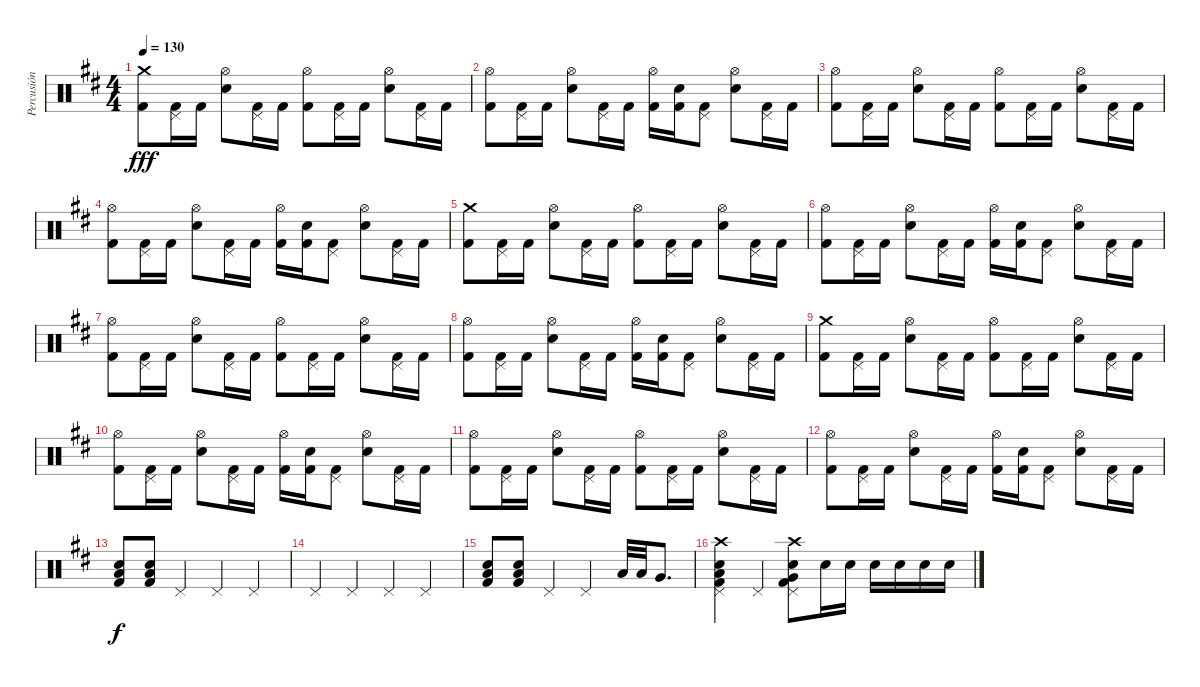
\track ("Percusión" "Percusión") {instrument percussion}
\staff {score}
\articulation defaults
\ts (4 4)
\tempo 130
\clef neutral
\ks d
("Crash medium (hit)" "Kick (hit) 2").8{dy fff} ("Pedal Hi-Hat (hit)" "Kick (hit) 2").16 "Kick (hit) 2".16 ("Hi-Hat (open)" "Electric Snare (hit)").8 ("Pedal Hi-Hat (hit)" "Kick (hit) 2").16 "Kick (hit) 2".16 ("Hi-Hat (open)" "Kick (hit) 2").8 ("Pedal Hi-Hat (hit)" "Kick (hit) 2").16 "Kick (hit) 2".16 ("Hi-Hat (open)" "Electric Snare (hit)").8 ("Pedal Hi-Hat (hit)" "Kick (hit) 2").16 "Kick (hit) 2".16 |
("Hi-Hat (open)" "Kick (hit) 2").8 ("Pedal Hi-Hat (hit)" "Kick (hit) 2").16 "Kick (hit) 2".16 ("Hi-Hat (open)" "Electric Snare (hit)").8 ("Pedal Hi-Hat (hit)" "Kick (hit) 2").16 "Kick (hit) 2".16 ("Hi-Hat (open)" "Kick (hit) 2").16 ("Electric Snare (hit)" "Kick (hit) 2").16 ("Pedal Hi-Hat (hit)" "Kick (hit) 2").8 ("Hi-Hat (open)" "Electric Snare (hit)").8 ("Pedal Hi-Hat (hit)" "Kick (hit) 2").16 "Kick (hit) 2".16 |
("Hi-Hat (open)" "Kick (hit) 2").8 ("Pedal Hi-Hat (hit)" "Kick (hit) 2").16 "Kick (hit) 2".16 ("Hi-Hat (open)" "Electric Snare (hit)").8 ("Pedal Hi-Hat (hit)" "Kick (hit) 2").16 "Kick (hit) 2".16 ("Hi-Hat (open)" "Kick (hit) 2").8 ("Pedal Hi-Hat (hit)" "Kick (hit) 2").16 "Kick (hit) 2".16 ("Hi-Hat (open)" "Electric Snare (hit)").8 ("Pedal Hi-Hat (hit)" "Kick (hit) 2").16 "Kick (hit) 2".16 |
("Hi-Hat (open)" "Kick (hit) 2").8 ("Pedal Hi-Hat (hit)" "Kick (hit) 2").16 "Kick (hit) 2".16 ("Hi-Hat (open)" "Electric Snare (hit)").8 ("Pedal Hi-Hat (hit)" "Kick (hit) 2").16 "Kick (hit) 2".16 ("Hi-Hat (open)" "Kick (hit) 2").16 ("Electric Snare (hit)" "Kick (hit) 2").16 ("Pedal Hi-Hat (hit)" "Kick (hit) 2").8 ("Hi-Hat (open)" "Electric Snare (hit)").8 ("Pedal Hi-Hat (hit)" "Kick (hit) 2").16 "Kick (hit) 2".16 |
("Crash medium (hit)" "Kick (hit) 2").8 ("Pedal Hi-Hat (hit)" "Kick (hit) 2").16 "Kick (hit) 2".16 ("Hi-Hat (open)" "Electric Snare (hit)").8 ("Pedal Hi-Hat (hit)" "Kick (hit) 2").16 "Kick (hit) 2".16 ("Hi-Hat (open)" "Kick (hit) 2").8 ("Pedal Hi-Hat (hit)" "Kick (hit) 2").16 "Kick (hit) 2".16 ("Hi-Hat (open)" "Electric Snare (hit)").8 ("Pedal Hi-Hat (hit)" "Kick (hit) 2").16 "Kick (hit) 2".16 |
("Hi-Hat (open)" "Kick (hit) 2").8 ("Pedal Hi-Hat (hit)" "Kick (hit) 2").16 "Kick (hit) 2".16 ("Hi-Hat (open)" "Electric Snare (hit)").8 ("Pedal Hi-Hat (hit)" "Kick (hit) 2").16 "Kick (hit) 2".16 ("Hi-Hat (open)" "Kick (hit) 2").16 ("Electric Snare (hit)" "Kick (hit) 2").16 ("Pedal Hi-Hat (hit)" "Kick (hit) 2").8 ("Hi-Hat (open)" "Electric Snare (hit)").8 ("Pedal Hi-Hat (hit)" "Kick (hit) 2").16 "Kick (hit) 2".16 |
("Hi-Hat (open)" "Kick (hit) 2").8 ("Pedal Hi-Hat (hit)" "Kick (hit) 2").16 "Kick (hit) 2".16 ("Hi-Hat (open)" "Electric Snare (hit)").8 ("Pedal Hi-Hat (hit)" "Kick (hit) 2").16 "Kick (hit) 2".16 ("Hi-Hat (open)" "Kick (hit) 2").8 ("Pedal Hi-Hat (hit)" "Kick (hit) 2").16 "Kick (hit) 2".16 ("Hi-Hat (open)" "Electric Snare (hit)").8 ("Pedal Hi-Hat (hit)" "Kick (hit) 2").16 "Kick (hit) 2".16 |
("Hi-Hat (open)" "Kick (hit) 2").8 ("Pedal Hi-Hat (hit)" "Kick (hit) 2").16 "Kick (hit) 2".16 ("Hi-Hat (open)" "Electric Snare (hit)").8 ("Pedal Hi-Hat (hit)" "Kick (hit) 2").16 "Kick (hit) 2".16 ("Hi-Hat (open)" "Kick (hit) 2").16 ("Electric Snare (hit)" "Kick (hit) 2").16 ("Pedal Hi-Hat (hit)" "Kick (hit) 2").8 ("Hi-Hat (open)" "Electric Snare (hit)").8 ("Pedal Hi-Hat (hit)" "Kick (hit) 2").16 "Kick (hit) 2".16 |
("Crash medium (hit)" "Kick (hit) 2").8 ("Pedal Hi-Hat (hit)" "Kick (hit) 2").16 "Kick (hit) 2".16 ("Hi-Hat (open)" "Electric Snare (hit)").8 ("Pedal Hi-Hat (hit)" "Kick (hit) 2").16 "Kick (hit) 2".16 ("Hi-Hat (open)" "Kick (hit) 2").8 ("Pedal Hi-Hat (hit)" "Kick (hit) 2").16 "Kick (hit) 2".16 ("Hi-Hat (open)" "Electric Snare (hit)").8 ("Pedal Hi-Hat (hit)" "Kick (hit) 2").16 "Kick (hit) 2".16 |
("Hi-Hat (open)" "Kick (hit) 2").8 ("Pedal Hi-Hat (hit)" "Kick (hit) 2").16 "Kick (hit) 2".16 ("Hi-Hat (open)" "Electric Snare (hit)").8 ("Pedal Hi-Hat (hit)" "Kick (hit) 2").16 "Kick (hit) 2".16 ("Hi-Hat (open)" "Kick (hit) 2").16 ("Electric Snare (hit)" "Kick (hit) 2").16 ("Pedal Hi-Hat (hit)" "Kick (hit) 2").8 ("Hi-Hat (open)" "Electric Snare (hit)").8 ("Pedal Hi-Hat (hit)" "Kick (hit) 2").16 "Kick (hit) 2".16 |
("Hi-Hat (open)" "Kick (hit) 2").8 ("Pedal Hi-Hat (hit)" "Kick (hit) 2").16 "Kick (hit) 2".16 ("Hi-Hat (open)" "Electric Snare (hit)").8 ("Pedal Hi-Hat (hit)" "Kick (hit) 2").16 "Kick (hit) 2".16 ("Hi-Hat (open)" "Kick (hit) 2").8 ("Pedal Hi-Hat (hit)" "Kick (hit) 2").16 "Kick (hit) 2".16 ("Hi-Hat (open)" "Electric Snare (hit)").8 ("Pedal Hi-Hat (hit)" "Kick (hit) 2").16 "Kick (hit) 2".16 |
("Hi-Hat (open)" "Kick (hit) 2").8 ("Pedal Hi-Hat (hit)" "Kick (hit) 2").16 "Kick (hit) 2".16 ("Hi-Hat (open)" "Electric Snare (hit)").8 ("Pedal Hi-Hat (hit)" "Kick (hit) 2").16 "Kick (hit) 2".16 ("Hi-Hat (open)" "Kick (hit) 2").16 ("Electric Snare (hit)" "Kick (hit) 2").16 ("Pedal Hi-Hat (hit)" "Kick (hit) 2").8 ("Hi-Hat (open)" "Electric Snare (hit)").8 ("Pedal Hi-Hat (hit)" "Kick (hit) 2").16 "Kick (hit) 2".16 |
("Low Floor Tom (hit)" "Electric Snare (hit)" "Kick (hit) 2").8{dy f} ("Low Floor Tom (hit)" "Electric Snare (hit)" "Kick (hit) 2").8 "Pedal Hi-Hat (hit)".4 "Pedal Hi-Hat (hit)".4 "Pedal Hi-Hat (hit)".4 |
"Pedal Hi-Hat (hit)".4 "Pedal Hi-Hat (hit)".4 "Pedal Hi-Hat (hit)".4 "Pedal Hi-Hat (hit)".4 |
("Low Floor Tom (hit)" "Electric Snare (hit)" "Kick (hit) 2").8 ("Low Floor Tom (hit)" "Electric Snare (hit)" "Kick (hit) 2").8 "Pedal Hi-Hat (hit)".4 "Pedal Hi-Hat (hit)".4 "Low Tom (hit)".32 "Low Tom (hit)".32 "Very Low Tom (hit)".8{d} |
("Crash high (hit)" "Low Tom (hit)" "Pedal Hi-Hat (hit)" "Electric Snare (hit)" "Kick (hit) 2").4 "Pedal Hi-Hat (hit)".4 ("Crash high (hit)" "Very Low Tom (hit)" "Pedal Hi-Hat (hit)" "Electric Snare (hit)" "Kick (hit) 2").8 "Electric Snare (hit)".16 "Electric Snare (hit)".16 "Electric Snare (hit)".16 "Electric Snare (hit)".16 "Electric Snare (hit)".16 "Electric Snare (hit)".16
